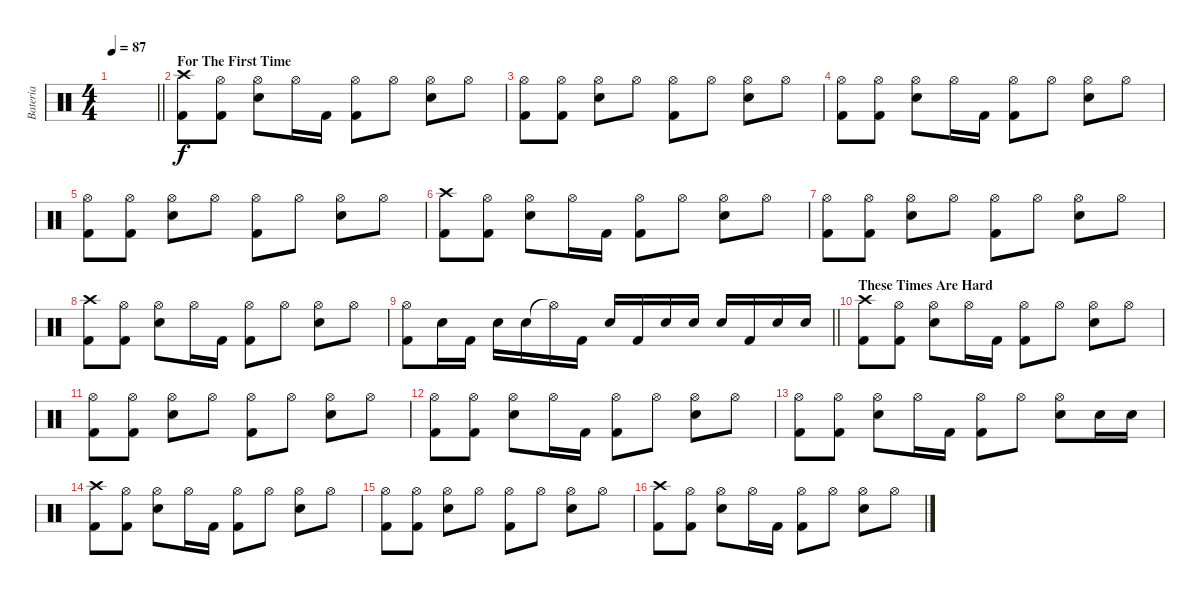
\track ("Bateria" "Bateria") {instrument percussion}
\staff {score}
\articulation defaults
\ts (4 4)
\tempo 87
\clef neutral
\barLineRight lightlight
\ks c
|
\section ("" "For The First Time")
("Crash high (hit)" "Kick (hit) 2").8 ("Hi-Hat (open)" "Kick (hit) 2").8 ("Hi-Hat (open)" "Snare (hit) 2").8 "Hi-Hat (open)".16 "Kick (hit) 2".16 ("Hi-Hat (open)" "Kick (hit) 2").8 "Hi-Hat (open)".8 ("Hi-Hat (open)" "Snare (hit) 2").8 "Hi-Hat (open)".8 |
("Hi-Hat (open)" "Kick (hit) 2").8 ("Hi-Hat (open)" "Kick (hit) 2").8 ("Hi-Hat (open)" "Snare (hit) 2").8 "Hi-Hat (open)".8 ("Hi-Hat (open)" "Kick (hit) 2").8 "Hi-Hat (open)".8 ("Hi-Hat (open)" "Snare (hit) 2").8 "Hi-Hat (open)".8 |
("Hi-Hat (open)" "Kick (hit) 2").8 ("Hi-Hat (open)" "Kick (hit) 2").8 ("Hi-Hat (open)" "Snare (hit) 2").8 "Hi-Hat (open)".16 "Kick (hit) 2".16 ("Hi-Hat (open)" "Kick (hit) 2").8 "Hi-Hat (open)".8 ("Hi-Hat (open)" "Snare (hit) 2").8 "Hi-Hat (open)".8 |
("Hi-Hat (open)" "Kick (hit) 2").8 ("Hi-Hat (open)" "Kick (hit) 2").8 ("Hi-Hat (open)" "Snare (hit) 2").8 "Hi-Hat (open)".8 ("Hi-Hat (open)" "Kick (hit) 2").8 "Hi-Hat (open)".8 ("Hi-Hat (open)" "Snare (hit) 2").8 "Hi-Hat (open)".8 |
("Crash high (hit)" "Kick (hit) 2").8 ("Hi-Hat (open)" "Kick (hit) 2").8 ("Hi-Hat (open)" "Snare (hit) 2").8 "Hi-Hat (open)".16 "Kick (hit) 2".16 ("Hi-Hat (open)" "Kick (hit) 2").8 "Hi-Hat (open)".8 ("Hi-Hat (open)" "Snare (hit) 2").8 "Hi-Hat (open)".8 |
("Hi-Hat (open)" "Kick (hit) 2").8 ("Hi-Hat (open)" "Kick (hit) 2").8 ("Hi-Hat (open)" "Snare (hit) 2").8 "Hi-Hat (open)".8 ("Hi-Hat (open)" "Kick (hit) 2").8 "Hi-Hat (open)".8 ("Hi-Hat (open)" "Snare (hit) 2").8 "Hi-Hat (open)".8 |
("Crash high (hit)" "Kick (hit) 2").8 ("Hi-Hat (open)" "Kick (hit) 2").8 ("Hi-Hat (open)" "Snare (hit) 2").8 "Hi-Hat (open)".16 "Kick (hit) 2".16 ("Hi-Hat (open)" "Kick (hit) 2").8 "Hi-Hat (open)".8 ("Hi-Hat (open)" "Snare (hit) 2").8 "Hi-Hat (open)".8 |
\barLineRight lightlight
("Hi-Hat (open)" "Kick (hit) 2").8 "Snare (hit) 2".16 "Kick (hit) 2".16 "Snare (hit) 2".16 "Snare (hit) 2".16 "Hi-Hat (open)"{t}.16 "Kick (hit) 2".16 "Snare (hit) 2".16 "Kick (hit) 2".16 "Snare (hit) 2".16 "Snare (hit) 2".16 "Snare (hit) 2".16 "Kick (hit) 2".16 "Snare (hit) 2".16 "Snare (hit) 2".16 |
\section ("" "These Times Are Hard")
("Crash high (hit)" "Kick (hit) 2").8 ("Hi-Hat (open)" "Kick (hit) 2").8 ("Hi-Hat (open)" "Snare (hit) 2").8 "Hi-Hat (open)".16 "Kick (hit) 2".16 ("Hi-Hat (open)" "Kick (hit) 2").8 "Hi-Hat (open)".8 ("Hi-Hat (open)" "Snare (hit) 2").8 "Hi-Hat (open)".8 |
("Hi-Hat (open)" "Kick (hit) 2").8 ("Hi-Hat (open)" "Kick (hit) 2").8 ("Hi-Hat (open)" "Snare (hit) 2").8 "Hi-Hat (open)".8 ("Hi-Hat (open)" "Kick (hit) 2").8 "Hi-Hat (open)".8 ("Hi-Hat (open)" "Snare (hit) 2").8 "Hi-Hat (open)".8 |
("Hi-Hat (open)" "Kick (hit) 2").8 ("Hi-Hat (open)" "Kick (hit) 2").8 ("Hi-Hat (open)" "Snare (hit) 2").8 "Hi-Hat (open)".16 "Kick (hit) 2".16 ("Hi-Hat (open)" "Kick (hit) 2").8 "Hi-Hat (open)".8 ("Hi-Hat (open)" "Snare (hit) 2").8 "Hi-Hat (open)".8 |
("Hi-Hat (open)" "Kick (hit) 2").8 ("Hi-Hat (open)" "Kick (hit) 2").8 ("Hi-Hat (open)" "Snare (hit) 2").8 "Hi-Hat (open)".16 "Kick (hit) 2".16 ("Hi-Hat (open)" "Kick (hit) 2").8 "Hi-Hat (open)".8 ("Hi-Hat (open)" "Snare (hit) 2").8 "Snare (hit) 2".16 "Snare (hit) 2".16 |
("Crash high (hit)" "Kick (hit) 2").8 ("Hi-Hat (open)" "Kick (hit) 2").8 ("Hi-Hat (open)" "Snare (hit) 2").8 "Hi-Hat (open)".16 "Kick (hit) 2".16 ("Hi-Hat (open)" "Kick (hit) 2").8 "Hi-Hat (open)".8 ("Hi-Hat (open)" "Snare (hit) 2").8 "Hi-Hat (open)".8 |
("Hi-Hat (open)" "Kick (hit) 2").8 ("Hi-Hat (open)" "Kick (hit) 2").8 ("Hi-Hat (open)" "Snare (hit) 2").8 "Hi-Hat (open)".8 ("Hi-Hat (open)" "Kick (hit) 2").8 "Hi-Hat (open)".8 ("Hi-Hat (open)" "Snare (hit) 2").8 "Hi-Hat (open)".8 |
("Crash high (hit)" "Kick (hit) 2").8 ("Hi-Hat (open)" "Kick (hit) 2").8 ("Hi-Hat (open)" "Snare (hit) 2").8 "Hi-Hat (open)".16 "Kick (hit) 2".16 ("Hi-Hat (open)" "Kick (hit) 2").8 "Hi-Hat (open)".8 ("Hi-Hat (open)" "Snare (hit) 2").8 "Hi-Hat (open)".8
